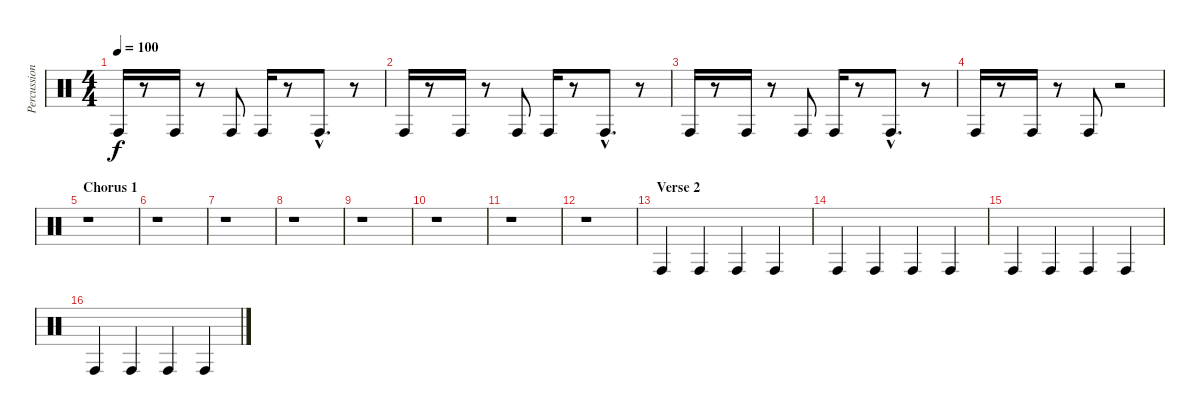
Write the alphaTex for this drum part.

\track ("Percussions additionnelles" "Percussion") {instrument percussion}
\staff {score}
\articulation defaults
\ts (4 4)
\tempo 100
\clef neutral
\ks c "Conga high (hit)".16{dy f}
r.8 "Conga high (hit)".16 r.8 "Conga high (hit)".8 "Conga high (hit)".16 r.8 "Conga high (hit)"{hac}.8{d} r.8 |
"Conga high (hit)".16 r.8 "Conga high (hit)".16 r.8 "Conga high (hit)".8 "Conga high (hit)".16 r.8 "Conga high (hit)"{hac}.8{d} r.8 |
"Conga high (hit)".16 r.8 "Conga high (hit)".16 r.8 "Conga high (hit)".8 "Conga high (hit)".16 r.8 "Conga high (hit)"{hac}.8{d} r.8 |
"Conga high (hit)".16 r.8 "Conga high (hit)".16 r.8 "Conga high (hit)".8 r.2 |
\section ("" "Chorus 1")
r.1 |
r.1 |
r.1 |
r.1 |
r.1 |
r.1 |
r.1 |
r.1 |
\section ("" "Verse 2")
"Conga high (hit)".4 "Conga high (hit)".4 "Conga high (hit)".4 "Conga high (hit)".4 |
"Conga high (hit)".4 "Conga high (hit)".4 "Conga high (hit)".4 "Conga high (hit)".4 |
"Conga high (hit)".4 "Conga high (hit)".4 "Conga high (hit)".4 "Conga high (hit)".4 |
"Conga high (hit)".4 "Conga high (hit)".4 "Conga high (hit)".4 "Conga high (hit)".4
